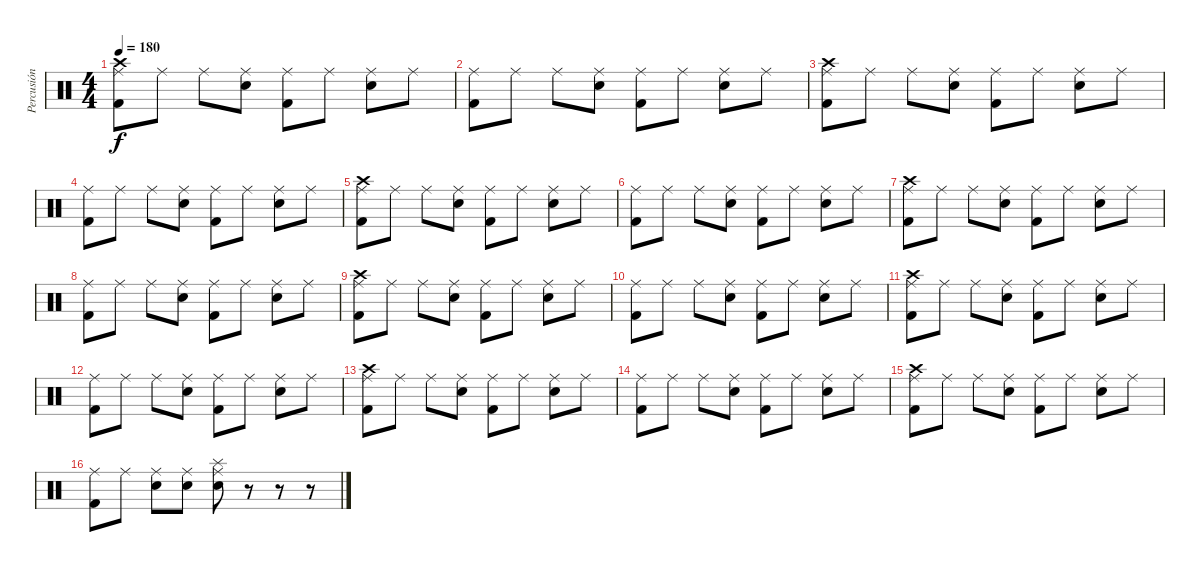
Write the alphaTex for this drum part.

\track ("Percusión" "Percusión") {instrument percussion}
\staff {score}
\articulation defaults
\ts (4 4)
\tempo 180
\clef neutral
\ks c
("Kick (hit) 2" "Crash high (hit)" "Ride (middle)").8{dy f} "Ride (middle)".8 "Ride (middle)".8 ("Snare (hit) 2" "Ride (middle)").8 ("Kick (hit) 2" "Ride (middle)").8 "Ride (middle)".8 ("Snare (hit) 2" "Ride (middle)").8 "Ride (middle)".8 |
("Kick (hit) 2" "Ride (middle)").8 "Ride (middle)".8 "Ride (middle)".8 ("Snare (hit) 2" "Ride (middle)").8 ("Kick (hit) 2" "Ride (middle)").8 "Ride (middle)".8 ("Snare (hit) 2" "Ride (middle)").8 "Ride (middle)".8 |
("Kick (hit) 2" "Crash high (hit)" "Ride (middle)").8 "Ride (middle)".8 "Ride (middle)".8 ("Snare (hit) 2" "Ride (middle)").8 ("Kick (hit) 2" "Ride (middle)").8 "Ride (middle)".8 ("Snare (hit) 2" "Ride (middle)").8 "Ride (middle)".8 |
("Kick (hit) 2" "Ride (middle)").8 "Ride (middle)".8 "Ride (middle)".8 ("Snare (hit) 2" "Ride (middle)").8 ("Kick (hit) 2" "Ride (middle)").8 "Ride (middle)".8 ("Snare (hit) 2" "Ride (middle)").8 "Ride (middle)".8 |
("Kick (hit) 2" "Crash high (hit)" "Ride (middle)").8 "Ride (middle)".8 "Ride (middle)".8 ("Snare (hit) 2" "Ride (middle)").8 ("Kick (hit) 2" "Ride (middle)").8 "Ride (middle)".8 ("Snare (hit) 2" "Ride (middle)").8 "Ride (middle)".8 |
("Kick (hit) 2" "Ride (middle)").8 "Ride (middle)".8 "Ride (middle)".8 ("Snare (hit) 2" "Ride (middle)").8 ("Kick (hit) 2" "Ride (middle)").8 "Ride (middle)".8 ("Snare (hit) 2" "Ride (middle)").8 "Ride (middle)".8 |
("Kick (hit) 2" "Crash high (hit)" "Ride (middle)").8 "Ride (middle)".8 "Ride (middle)".8 ("Snare (hit) 2" "Ride (middle)").8 ("Kick (hit) 2" "Ride (middle)").8 "Ride (middle)".8 ("Snare (hit) 2" "Ride (middle)").8 "Ride (middle)".8 |
("Kick (hit) 2" "Ride (middle)").8 "Ride (middle)".8 "Ride (middle)".8 ("Snare (hit) 2" "Ride (middle)").8 ("Kick (hit) 2" "Ride (middle)").8 "Ride (middle)".8 ("Snare (hit) 2" "Ride (middle)").8 "Ride (middle)".8 |
("Kick (hit) 2" "Crash high (hit)" "Ride (middle)").8 "Ride (middle)".8 "Ride (middle)".8 ("Snare (hit) 2" "Ride (middle)").8 ("Kick (hit) 2" "Ride (middle)").8 "Ride (middle)".8 ("Snare (hit) 2" "Ride (middle)").8 "Ride (middle)".8 |
("Kick (hit) 2" "Ride (middle)").8 "Ride (middle)".8 "Ride (middle)".8 ("Snare (hit) 2" "Ride (middle)").8 ("Kick (hit) 2" "Ride (middle)").8 "Ride (middle)".8 ("Snare (hit) 2" "Ride (middle)").8 "Ride (middle)".8 |
("Kick (hit) 2" "Crash high (hit)" "Ride (middle)").8 "Ride (middle)".8 "Ride (middle)".8 ("Snare (hit) 2" "Ride (middle)").8 ("Kick (hit) 2" "Ride (middle)").8 "Ride (middle)".8 ("Snare (hit) 2" "Ride (middle)").8 "Ride (middle)".8 |
("Kick (hit) 2" "Ride (middle)").8 "Ride (middle)".8 "Ride (middle)".8 ("Snare (hit) 2" "Ride (middle)").8 ("Kick (hit) 2" "Ride (middle)").8 "Ride (middle)".8 ("Snare (hit) 2" "Ride (middle)").8 "Ride (middle)".8 |
("Kick (hit) 2" "Crash high (hit)" "Ride (middle)").8 "Ride (middle)".8 "Ride (middle)".8 ("Snare (hit) 2" "Ride (middle)").8 ("Kick (hit) 2" "Ride (middle)").8 "Ride (middle)".8 ("Snare (hit) 2" "Ride (middle)").8 "Ride (middle)".8 |
("Kick (hit) 2" "Ride (middle)").8 "Ride (middle)".8 "Ride (middle)".8 ("Snare (hit) 2" "Ride (middle)").8 ("Kick (hit) 2" "Ride (middle)").8 "Ride (middle)".8 ("Snare (hit) 2" "Ride (middle)").8 "Ride (middle)".8 |
("Kick (hit) 2" "Crash high (hit)" "Ride (middle)").8 "Ride (middle)".8 "Ride (middle)".8 ("Snare (hit) 2" "Ride (middle)").8 ("Kick (hit) 2" "Ride (middle)").8 "Ride (middle)".8 ("Snare (hit) 2" "Ride (middle)").8 "Ride (middle)".8 |
("Kick (hit) 2" "Ride (middle)").8 "Ride (middle)".8 ("Snare (hit) 2" "Ride (middle)").8 ("Snare (hit) 2" "Ride (middle)").8 ("Snare (hit) 2" "Splash (hit)" "Ride (middle)").8 r.8 r.8 r.8
